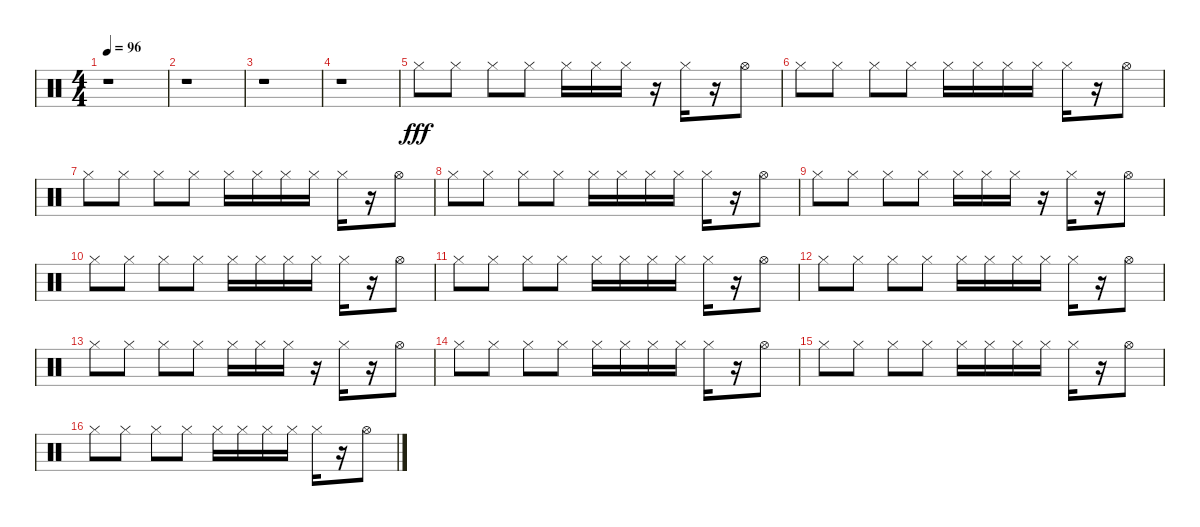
\track "" {instrument percussion}
\staff {score}
\articulation defaults
\ts (4 4)
\tempo 96
\clef neutral
\ks c
r.1{dy fff} |
r.1 |
r.1 |
r.1 |
"Hi-Hat (closed)".8 "Hi-Hat (closed)".8 "Hi-Hat (closed)".8 "Hi-Hat (closed)".8 "Hi-Hat (closed)".16 "Hi-Hat (closed)".16 "Hi-Hat (closed)".16 r.16 "Hi-Hat (closed)".16 r.16 "Hi-Hat (open)".8 |
"Hi-Hat (closed)".8 "Hi-Hat (closed)".8 "Hi-Hat (closed)".8 "Hi-Hat (closed)".8 "Hi-Hat (closed)".16 "Hi-Hat (closed)".16 "Hi-Hat (closed)".16 "Hi-Hat (closed)".16 "Hi-Hat (closed)".16 r.16 "Hi-Hat (open)".8 |
"Hi-Hat (closed)".8 "Hi-Hat (closed)".8 "Hi-Hat (closed)".8 "Hi-Hat (closed)".8 "Hi-Hat (closed)".16 "Hi-Hat (closed)".16 "Hi-Hat (closed)".16 "Hi-Hat (closed)".16 "Hi-Hat (closed)".16 r.16 "Hi-Hat (open)".8 |
"Hi-Hat (closed)".8 "Hi-Hat (closed)".8 "Hi-Hat (closed)".8 "Hi-Hat (closed)".8 "Hi-Hat (closed)".16 "Hi-Hat (closed)".16 "Hi-Hat (closed)".16 "Hi-Hat (closed)".16 "Hi-Hat (closed)".16 r.16 "Hi-Hat (open)".8 |
"Hi-Hat (closed)".8 "Hi-Hat (closed)".8 "Hi-Hat (closed)".8 "Hi-Hat (closed)".8 "Hi-Hat (closed)".16 "Hi-Hat (closed)".16 "Hi-Hat (closed)".16 r.16 "Hi-Hat (closed)".16 r.16 "Hi-Hat (open)".8 |
"Hi-Hat (closed)".8 "Hi-Hat (closed)".8 "Hi-Hat (closed)".8 "Hi-Hat (closed)".8 "Hi-Hat (closed)".16 "Hi-Hat (closed)".16 "Hi-Hat (closed)".16 "Hi-Hat (closed)".16 "Hi-Hat (closed)".16 r.16 "Hi-Hat (open)".8 |
"Hi-Hat (closed)".8 "Hi-Hat (closed)".8 "Hi-Hat (closed)".8 "Hi-Hat (closed)".8 "Hi-Hat (closed)".16 "Hi-Hat (closed)".16 "Hi-Hat (closed)".16 "Hi-Hat (closed)".16 "Hi-Hat (closed)".16 r.16 "Hi-Hat (open)".8 |
"Hi-Hat (closed)".8 "Hi-Hat (closed)".8 "Hi-Hat (closed)".8 "Hi-Hat (closed)".8 "Hi-Hat (closed)".16 "Hi-Hat (closed)".16 "Hi-Hat (closed)".16 "Hi-Hat (closed)".16 "Hi-Hat (closed)".16 r.16 "Hi-Hat (open)".8 |
"Hi-Hat (closed)".8 "Hi-Hat (closed)".8 "Hi-Hat (closed)".8 "Hi-Hat (closed)".8 "Hi-Hat (closed)".16 "Hi-Hat (closed)".16 "Hi-Hat (closed)".16 r.16 "Hi-Hat (closed)".16 r.16 "Hi-Hat (open)".8 |
"Hi-Hat (closed)".8 "Hi-Hat (closed)".8 "Hi-Hat (closed)".8 "Hi-Hat (closed)".8 "Hi-Hat (closed)".16 "Hi-Hat (closed)".16 "Hi-Hat (closed)".16 "Hi-Hat (closed)".16 "Hi-Hat (closed)".16 r.16 "Hi-Hat (open)".8 |
"Hi-Hat (closed)".8 "Hi-Hat (closed)".8 "Hi-Hat (closed)".8 "Hi-Hat (closed)".8 "Hi-Hat (closed)".16 "Hi-Hat (closed)".16 "Hi-Hat (closed)".16 "Hi-Hat (closed)".16 "Hi-Hat (closed)".16 r.16 "Hi-Hat (open)".8 |
"Hi-Hat (closed)".8 "Hi-Hat (closed)".8 "Hi-Hat (closed)".8 "Hi-Hat (closed)".8 "Hi-Hat (closed)".16 "Hi-Hat (closed)".16 "Hi-Hat (closed)".16 "Hi-Hat (closed)".16 "Hi-Hat (closed)".16 r.16 "Hi-Hat (open)".8
